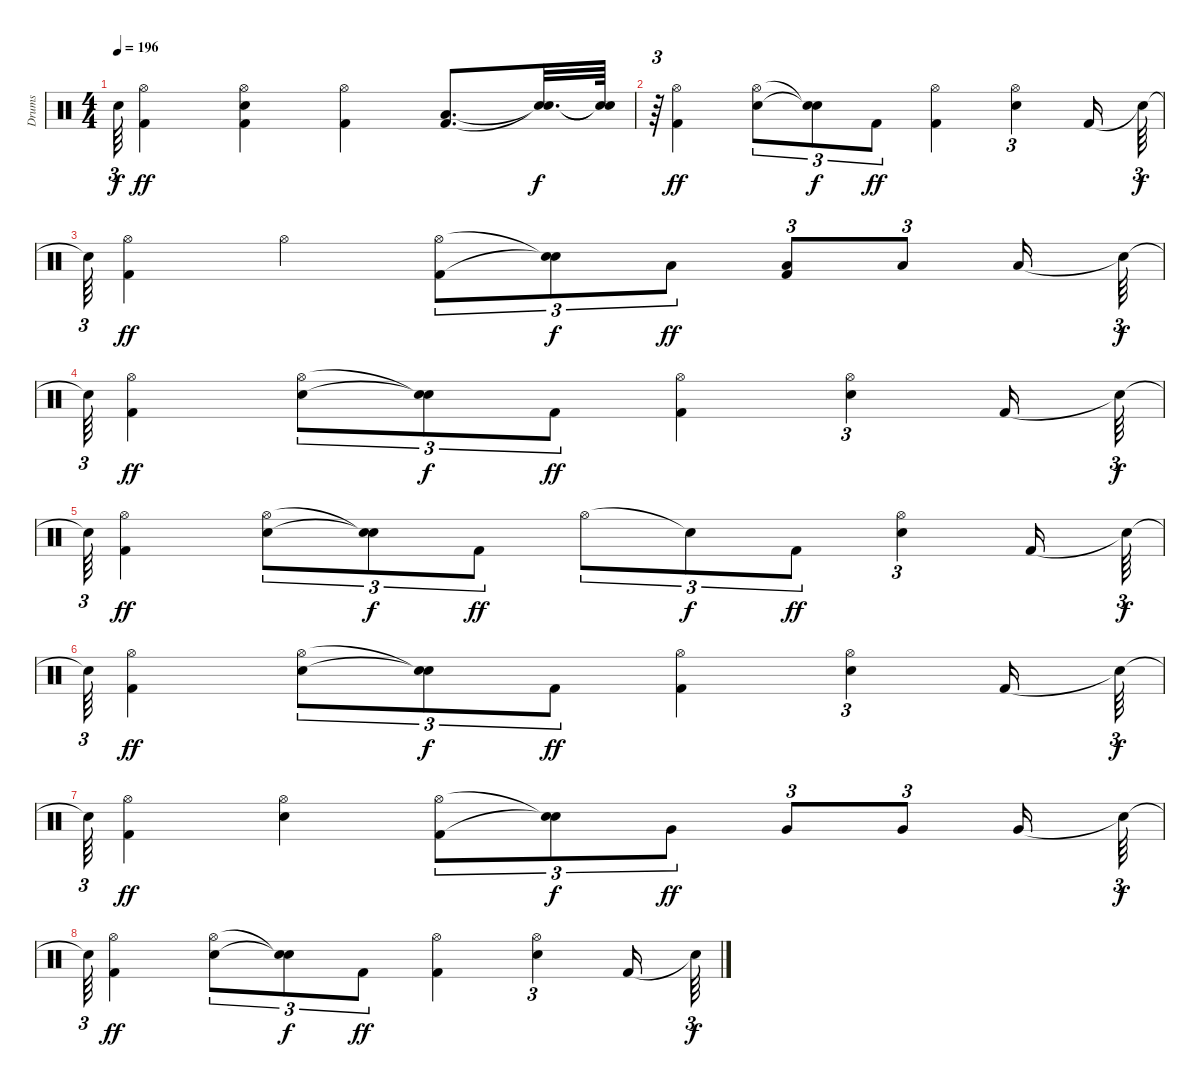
\track ("Drums" "Drums") {instrument percussion}
\staff {score}
\articulation defaults
\ts (4 4)
\tempo 196
\clef neutral
\ks c "Snare (hit)"{t}.64{tu (3 2) dy f}
("Hi-Hat (open)" "Kick (hit) 2").4{dy ff} ("Hi-Hat (open)" "Electric Snare (hit)" "Kick (hit) 2").4 ("Hi-Hat (open)" "Kick (hit) 2").4 ("Low Tom (hit)" "Kick (hit) 2").8{d} ("Snare (hit)"{t} "Snare (hit)"{t}).32{d dy f} ("Snare (hit)"{t} "Snare (hit)"{t}).64 |
r.64{tu (3 2)} ("Hi-Hat (open)" "Kick (hit) 2").4{dy ff} ("Hi-Hat (open)" "Electric Snare (hit)").8{tu (3 2)} ("Snare (hit)"{t} "Snare (hit)"{t}).8{tu (3 2) dy f} "Kick (hit) 2".8{tu (3 2) dy ff} ("Hi-Hat (open)" "Kick (hit) 2").4 ("Hi-Hat (open)" "Electric Snare (hit)").4{tu (3 2)} "Kick (hit) 2".16 "Snare (hit)"{t}.64{tu (3 2) dy f} |
"Snare (hit)"{t}.64{tu (3 2)} ("Kick (hit) 2" "Hi-Hat (open)").4{dy ff} "Hi-Hat (open)".4 ("Kick (hit) 2" "Hi-Hat (open)").8{tu (3 2)} ("Snare (hit)"{t} "Snare (hit)"{t}).8{tu (3 2) dy f} "Low Tom (hit)".8{tu (3 2) dy ff} ("Kick (hit) 2" "Low Tom (hit)").8{tu (3 2)} "Low Tom (hit)".8{tu (3 2)} "Low Tom (hit)".16 "Snare (hit)"{t}.64{tu (3 2) dy f} |
"Snare (hit)"{t}.64{tu (3 2)} ("Hi-Hat (open)" "Kick (hit) 2").4{dy ff} ("Hi-Hat (open)" "Electric Snare (hit)").8{tu (3 2)} ("Snare (hit)"{t} "Snare (hit)"{t}).8{tu (3 2) dy f} "Kick (hit) 2".8{tu (3 2) dy ff} ("Hi-Hat (open)" "Kick (hit) 2").4 ("Hi-Hat (open)" "Electric Snare (hit)").4{tu (3 2)} "Kick (hit) 2".16 "Snare (hit)"{t}.64{tu (3 2) dy f} |
"Snare (hit)"{t}.64{tu (3 2)} ("Hi-Hat (open)" "Kick (hit) 2").4{dy ff} ("Hi-Hat (open)" "Electric Snare (hit)").8{tu (3 2)} ("Snare (hit)"{t} "Snare (hit)"{t}).8{tu (3 2) dy f} "Kick (hit) 2".8{tu (3 2) dy ff} "Hi-Hat (open)".8{tu (3 2)} "Snare (hit)"{t}.8{tu (3 2) dy f} "Kick (hit) 2".8{tu (3 2) dy ff} ("Hi-Hat (open)" "Electric Snare (hit)").4{tu (3 2)} "Kick (hit) 2".16 "Snare (hit)"{t}.64{tu (3 2) dy f} |
"Snare (hit)"{t}.64{tu (3 2)} ("Hi-Hat (open)" "Kick (hit) 2").4{dy ff} ("Hi-Hat (open)" "Electric Snare (hit)").8{tu (3 2)} ("Snare (hit)"{t} "Snare (hit)"{t}).8{tu (3 2) dy f} "Kick (hit) 2".8{tu (3 2) dy ff} ("Hi-Hat (open)" "Kick (hit) 2").4 ("Hi-Hat (open)" "Electric Snare (hit)").4{tu (3 2)} "Kick (hit) 2".16 "Snare (hit)"{t}.64{tu (3 2) dy f} |
"Snare (hit)"{t}.64{tu (3 2)} ("Hi-Hat (open)" "Kick (hit) 2").4{dy ff} ("Hi-Hat (open)" "Electric Snare (hit)").4 ("Hi-Hat (open)" "Kick (hit) 2").8{tu (3 2)} ("Snare (hit)"{t} "Snare (hit)"{t}).8{tu (3 2) dy f} "Very Low Tom (hit)".8{tu (3 2) dy ff} "Very Low Tom (hit)".8{tu (3 2)} "Very Low Tom (hit)".8{tu (3 2)} "Very Low Tom (hit)".16 "Snare (hit)"{t}.64{tu (3 2) dy f} |
"Snare (hit)"{t}.64{tu (3 2)} ("Hi-Hat (open)" "Kick (hit) 2").4{dy ff} ("Hi-Hat (open)" "Electric Snare (hit)").8{tu (3 2)} ("Snare (hit)"{t} "Snare (hit)"{t}).8{tu (3 2) dy f} "Kick (hit) 2".8{tu (3 2) dy ff} ("Hi-Hat (open)" "Kick (hit) 2").4 ("Hi-Hat (open)" "Electric Snare (hit)").4{tu (3 2)} "Kick (hit) 2".16 "Snare (hit)"{t}.64{tu (3 2) dy f}
